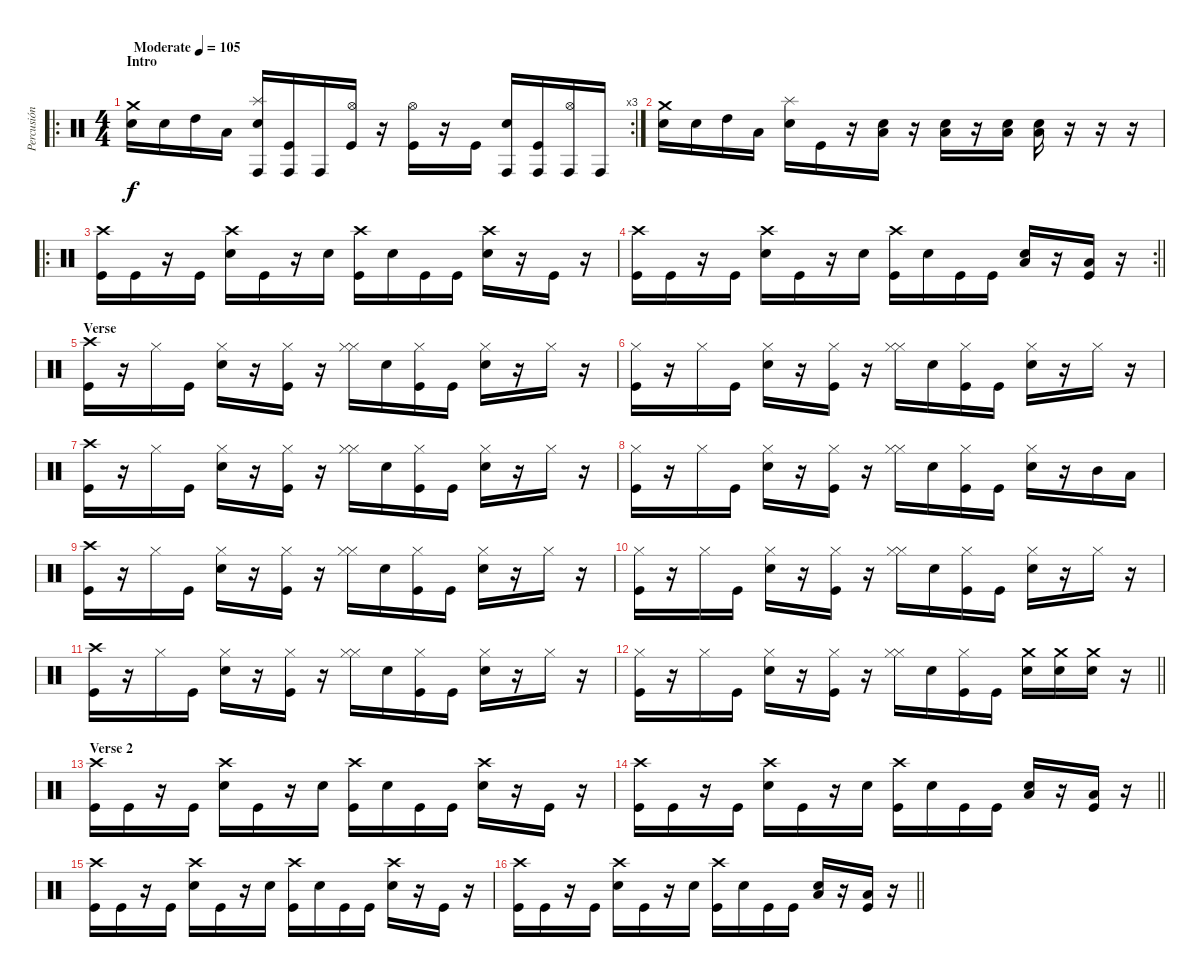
\track ("Percusión" "Percusión") {instrument percussion}
\staff {score}
\articulation defaults
\ro
\rc 3
\ts (4 4)
\section ("" "Intro")
\tempo (105 "Moderate")
\clef neutral
\ks c
("Crash medium (hit)" "Electric Snare (hit)").16{dy f} "Electric Snare (hit)".16 "High Tom (hit)".16 "Low Floor Tom (hit)".16 ("Conga high (hit)" "Splash (hit)" "Electric Snare (hit)").16 ("Conga high (hit)" "Kick (hit)").16 "Conga high (hit)".16 ("Kick (hit)" "Hi-Hat (open)").16 r.16 ("Kick (hit)" "Hi-Hat (open)").16 r.16 "Kick (hit)".16 ("Conga high (hit)" "Electric Snare (hit)").16 ("Conga high (hit)" "Kick (hit)").16 ("Conga high (hit)" "Hi-Hat (open)").16 "Conga high (hit)".16 |
("Crash medium (hit)" "Electric Snare (hit)").16 "Electric Snare (hit)".16 "High Tom (hit)".16 "Low Floor Tom (hit)".16 ("Splash (hit)" "Electric Snare (hit)").16 "Kick (hit)".16 r.16 ("Low Floor Tom (hit)" "Electric Snare (hit)").16 r.16 ("Low Floor Tom (hit)" "Electric Snare (hit)").16 r.16 ("Low Floor Tom (hit)" "Electric Snare (hit)").16 ("Low Floor Tom (hit)" "Electric Snare (hit)").16 r.16 r.16 r.16 |
\ro
("Crash high (hit)" "Kick (hit)").16 "Kick (hit)".16 r.16 "Kick (hit)".16 ("Crash high (hit)" "Electric Snare (hit)").16 "Kick (hit)".16 r.16 "Electric Snare (hit)".16 ("Crash high (hit)" "Kick (hit)").16 "Electric Snare (hit)".16 "Kick (hit)".16 "Kick (hit)".16 ("Crash high (hit)" "Electric Snare (hit)").16 r.16 "Kick (hit)".16 r.16 |
\rc 2
\barLineRight lightlight
("Crash high (hit)" "Kick (hit)").16 "Kick (hit)".16 r.16 "Kick (hit)".16 ("Crash high (hit)" "Electric Snare (hit)").16 "Kick (hit)".16 r.16 "Electric Snare (hit)".16 ("Crash high (hit)" "Kick (hit)").16 "Electric Snare (hit)".16 "Kick (hit)".16 "Kick (hit)".16 ("Low Floor Tom (hit)" "Electric Snare (hit)").16 r.16 ("Low Floor Tom (hit)" "Kick (hit)").16 r.16 |
\section ("" "Verse")
("Crash high (hit)" "Kick (hit)").16 r.16 "Hi-Hat (closed)".16 "Kick (hit)".16 ("Hi-Hat (closed)" "Electric Snare (hit)").16 r.16 ("Hi-Hat (closed)" "Kick (hit)").16 r.16 ("Hi-Hat (closed)" "Hi-Hat (closed)").16 "Electric Snare (hit)".16 ("Hi-Hat (closed)" "Kick (hit)").16 "Kick (hit)".16 ("Hi-Hat (closed)" "Electric Snare (hit)").16 r.16 "Hi-Hat (closed)".16 r.16 |
("Hi-Hat (closed)" "Kick (hit)").16 r.16 "Hi-Hat (closed)".16 "Kick (hit)".16 ("Hi-Hat (closed)" "Electric Snare (hit)").16 r.16 ("Hi-Hat (closed)" "Kick (hit)").16 r.16 ("Hi-Hat (closed)" "Hi-Hat (closed)").16 "Electric Snare (hit)".16 ("Hi-Hat (closed)" "Kick (hit)").16 "Kick (hit)".16 ("Hi-Hat (closed)" "Electric Snare (hit)").16 r.16 "Hi-Hat (closed)".16 r.16 |
("Crash high (hit)" "Kick (hit)").16 r.16 "Hi-Hat (closed)".16 "Kick (hit)".16 ("Hi-Hat (closed)" "Electric Snare (hit)").16 r.16 ("Hi-Hat (closed)" "Kick (hit)").16 r.16 ("Hi-Hat (closed)" "Hi-Hat (closed)").16 "Electric Snare (hit)".16 ("Hi-Hat (closed)" "Kick (hit)").16 "Kick (hit)".16 ("Hi-Hat (closed)" "Electric Snare (hit)").16 r.16 "Hi-Hat (closed)".16 r.16 |
("Hi-Hat (closed)" "Kick (hit)").16 r.16 "Hi-Hat (closed)".16 "Kick (hit)".16 ("Hi-Hat (closed)" "Electric Snare (hit)").16 r.16 ("Hi-Hat (closed)" "Kick (hit)").16 r.16 ("Hi-Hat (closed)" "Hi-Hat (closed)").16 "Electric Snare (hit)".16 ("Hi-Hat (closed)" "Kick (hit)").16 "Kick (hit)".16 ("Hi-Hat (closed)" "Electric Snare (hit)").16 r.16 "Mid Tom (hit)".16 "Low Tom (hit)".16 |
("Crash high (hit)" "Kick (hit)").16 r.16 "Hi-Hat (closed)".16 "Kick (hit)".16 ("Hi-Hat (closed)" "Electric Snare (hit)").16 r.16 ("Hi-Hat (closed)" "Kick (hit)").16 r.16 ("Hi-Hat (closed)" "Hi-Hat (closed)").16 "Electric Snare (hit)".16 ("Hi-Hat (closed)" "Kick (hit)").16 "Kick (hit)".16 ("Hi-Hat (closed)" "Electric Snare (hit)").16 r.16 "Hi-Hat (closed)".16 r.16 |
("Hi-Hat (closed)" "Kick (hit)").16 r.16 "Hi-Hat (closed)".16 "Kick (hit)".16 ("Hi-Hat (closed)" "Electric Snare (hit)").16 r.16 ("Hi-Hat (closed)" "Kick (hit)").16 r.16 ("Hi-Hat (closed)" "Hi-Hat (closed)").16 "Electric Snare (hit)".16 ("Hi-Hat (closed)" "Kick (hit)").16 "Kick (hit)".16 ("Hi-Hat (closed)" "Electric Snare (hit)").16 r.16 "Hi-Hat (closed)".16 r.16 |
("Crash high (hit)" "Kick (hit)").16 r.16 "Hi-Hat (closed)".16 "Kick (hit)".16 ("Hi-Hat (closed)" "Electric Snare (hit)").16 r.16 ("Hi-Hat (closed)" "Kick (hit)").16 r.16 ("Hi-Hat (closed)" "Hi-Hat (closed)").16 "Electric Snare (hit)".16 ("Hi-Hat (closed)" "Kick (hit)").16 "Kick (hit)".16 ("Hi-Hat (closed)" "Electric Snare (hit)").16 r.16 "Hi-Hat (closed)".16 r.16 |
\barLineRight lightlight
("Hi-Hat (closed)" "Kick (hit)").16 r.16 "Hi-Hat (closed)".16 "Kick (hit)".16 ("Hi-Hat (closed)" "Electric Snare (hit)").16 r.16 ("Hi-Hat (closed)" "Kick (hit)").16 r.16 ("Hi-Hat (closed)" "Hi-Hat (closed)").16 "Electric Snare (hit)".16 ("Hi-Hat (closed)" "Kick (hit)").16 "Kick (hit)".16 ("Crash medium (hit)" "Electric Snare (hit)").16 ("Crash medium (hit)" "Electric Snare (hit)").16 ("Crash medium (hit)" "Electric Snare (hit)").16 r.16 |
\section ("" "Verse 2")
("Crash high (hit)" "Kick (hit)").16 "Kick (hit)".16 r.16 "Kick (hit)".16 ("Crash high (hit)" "Electric Snare (hit)").16 "Kick (hit)".16 r.16 "Electric Snare (hit)".16 ("Crash high (hit)" "Kick (hit)").16 "Electric Snare (hit)".16 "Kick (hit)".16 "Kick (hit)".16 ("Crash high (hit)" "Electric Snare (hit)").16 r.16 "Kick (hit)".16 r.16 |
\barLineRight lightlight
("Crash high (hit)" "Kick (hit)").16 "Kick (hit)".16 r.16 "Kick (hit)".16 ("Crash high (hit)" "Electric Snare (hit)").16 "Kick (hit)".16 r.16 "Electric Snare (hit)".16 ("Crash high (hit)" "Kick (hit)").16 "Electric Snare (hit)".16 "Kick (hit)".16 "Kick (hit)".16 ("Low Floor Tom (hit)" "Electric Snare (hit)").16 r.16 ("Low Floor Tom (hit)" "Kick (hit)").16 r.16 |
("Crash high (hit)" "Kick (hit)").16 "Kick (hit)".16 r.16 "Kick (hit)".16 ("Crash high (hit)" "Electric Snare (hit)").16 "Kick (hit)".16 r.16 "Electric Snare (hit)".16 ("Crash high (hit)" "Kick (hit)").16 "Electric Snare (hit)".16 "Kick (hit)".16 "Kick (hit)".16 ("Crash high (hit)" "Electric Snare (hit)").16 r.16 "Kick (hit)".16 r.16 |
\barLineRight lightlight
("Crash high (hit)" "Kick (hit)").16 "Kick (hit)".16 r.16 "Kick (hit)".16 ("Crash high (hit)" "Electric Snare (hit)").16 "Kick (hit)".16 r.16 "Electric Snare (hit)".16 ("Crash high (hit)" "Kick (hit)").16 "Electric Snare (hit)".16 "Kick (hit)".16 "Kick (hit)".16 ("Low Floor Tom (hit)" "Electric Snare (hit)").16 r.16 ("Low Floor Tom (hit)" "Kick (hit)").16 r.16
